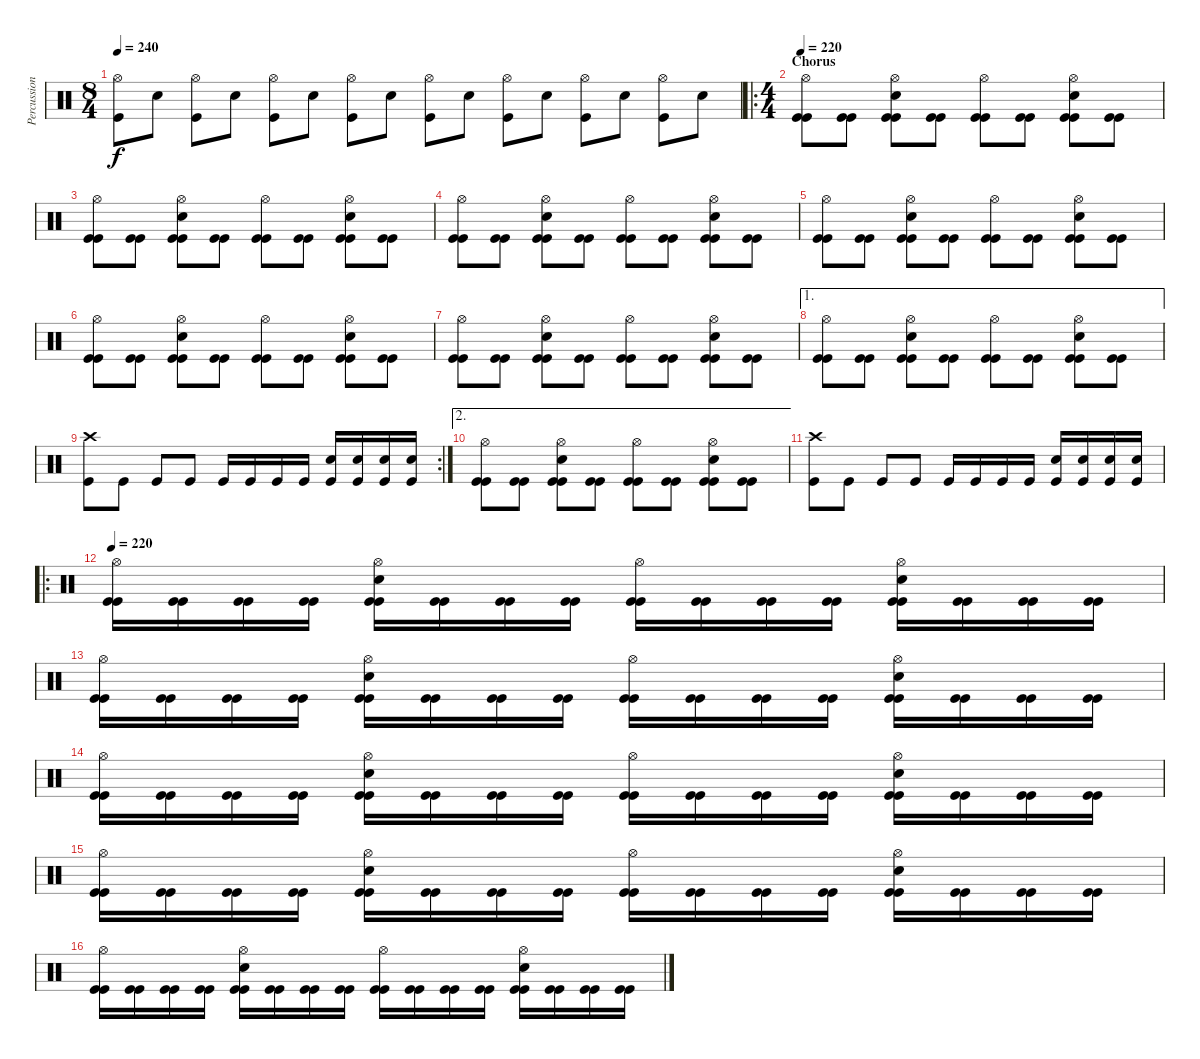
\track ("Percussion" "Percussion") {instrument percussion}
\staff {score}
\articulation defaults
\ts (8 4)
\tempo 240
\clef neutral
\ks c
("Hi-Hat (open)" "Kick (hit)").8{dy f} "Snare (hit) 2".8 ("Hi-Hat (open)" "Kick (hit)").8 "Snare (hit) 2".8 ("Hi-Hat (open)" "Kick (hit)").8 "Snare (hit) 2".8 ("Hi-Hat (open)" "Kick (hit)").8 "Snare (hit) 2".8 ("Hi-Hat (open)" "Kick (hit)").8 "Snare (hit) 2".8 ("Hi-Hat (open)" "Kick (hit)").8 "Snare (hit) 2".8 ("Hi-Hat (open)" "Kick (hit)").8 "Snare (hit) 2".8 ("Hi-Hat (open)" "Kick (hit)").8 "Snare (hit) 2".8 |
\ro
\ts (4 4)
\section ("" "Chorus")
\tempo 220
("Hi-Hat (open)" "Kick (hit)" "Kick (hit)").8 ("Kick (hit)" "Kick (hit)").8 ("Hi-Hat (open)" "Snare (hit) 2" "Kick (hit)" "Kick (hit)").8 ("Kick (hit)" "Kick (hit)").8 ("Hi-Hat (open)" "Kick (hit)" "Kick (hit)").8 ("Kick (hit)" "Kick (hit)").8 ("Hi-Hat (open)" "Snare (hit) 2" "Kick (hit)" "Kick (hit)").8 ("Kick (hit)" "Kick (hit)").8 |
("Hi-Hat (open)" "Kick (hit)" "Kick (hit)").8 ("Kick (hit)" "Kick (hit)").8 ("Hi-Hat (open)" "Snare (hit) 2" "Kick (hit)" "Kick (hit)").8 ("Kick (hit)" "Kick (hit)").8 ("Hi-Hat (open)" "Kick (hit)" "Kick (hit)").8 ("Kick (hit)" "Kick (hit)").8 ("Hi-Hat (open)" "Snare (hit) 2" "Kick (hit)" "Kick (hit)").8 ("Kick (hit)" "Kick (hit)").8 |
("Hi-Hat (open)" "Kick (hit)" "Kick (hit)").8 ("Kick (hit)" "Kick (hit)").8 ("Hi-Hat (open)" "Snare (hit) 2" "Kick (hit)" "Kick (hit)").8 ("Kick (hit)" "Kick (hit)").8 ("Hi-Hat (open)" "Kick (hit)" "Kick (hit)").8 ("Kick (hit)" "Kick (hit)").8 ("Hi-Hat (open)" "Snare (hit) 2" "Kick (hit)" "Kick (hit)").8 ("Kick (hit)" "Kick (hit)").8 |
("Hi-Hat (open)" "Kick (hit)" "Kick (hit)").8 ("Kick (hit)" "Kick (hit)").8 ("Hi-Hat (open)" "Snare (hit) 2" "Kick (hit)" "Kick (hit)").8 ("Kick (hit)" "Kick (hit)").8 ("Hi-Hat (open)" "Kick (hit)" "Kick (hit)").8 ("Kick (hit)" "Kick (hit)").8 ("Hi-Hat (open)" "Snare (hit) 2" "Kick (hit)" "Kick (hit)").8 ("Kick (hit)" "Kick (hit)").8 |
("Hi-Hat (open)" "Kick (hit)" "Kick (hit)").8 ("Kick (hit)" "Kick (hit)").8 ("Hi-Hat (open)" "Snare (hit) 2" "Kick (hit)" "Kick (hit)").8 ("Kick (hit)" "Kick (hit)").8 ("Hi-Hat (open)" "Kick (hit)" "Kick (hit)").8 ("Kick (hit)" "Kick (hit)").8 ("Hi-Hat (open)" "Snare (hit) 2" "Kick (hit)" "Kick (hit)").8 ("Kick (hit)" "Kick (hit)").8 |
("Hi-Hat (open)" "Kick (hit)" "Kick (hit)").8 ("Kick (hit)" "Kick (hit)").8 ("Hi-Hat (open)" "Snare (hit) 2" "Kick (hit)" "Kick (hit)").8 ("Kick (hit)" "Kick (hit)").8 ("Hi-Hat (open)" "Kick (hit)" "Kick (hit)").8 ("Kick (hit)" "Kick (hit)").8 ("Hi-Hat (open)" "Snare (hit) 2" "Kick (hit)" "Kick (hit)").8 ("Kick (hit)" "Kick (hit)").8 |
\ae 1
("Hi-Hat (open)" "Kick (hit)" "Kick (hit)").8 ("Kick (hit)" "Kick (hit)").8 ("Hi-Hat (open)" "Snare (hit) 2" "Kick (hit)" "Kick (hit)").8 ("Kick (hit)" "Kick (hit)").8 ("Hi-Hat (open)" "Kick (hit)" "Kick (hit)").8 ("Kick (hit)" "Kick (hit)").8 ("Hi-Hat (open)" "Snare (hit) 2" "Kick (hit)" "Kick (hit)").8 ("Kick (hit)" "Kick (hit)").8 |
\rc 2
("Crash high (hit)" "Kick (hit)").8 "Kick (hit)".8 "Kick (hit)".8 "Kick (hit)".8 "Kick (hit)".16 "Kick (hit)".16 "Kick (hit)".16 "Kick (hit)".16 ("Snare (hit) 2" "Kick (hit)").16 ("Snare (hit) 2" "Kick (hit)").16 ("Snare (hit) 2" "Kick (hit)").16 ("Snare (hit) 2" "Kick (hit)").16 |
\ae 2
("Hi-Hat (open)" "Kick (hit)" "Kick (hit)").8 ("Kick (hit)" "Kick (hit)").8 ("Hi-Hat (open)" "Snare (hit) 2" "Kick (hit)" "Kick (hit)").8 ("Kick (hit)" "Kick (hit)").8 ("Hi-Hat (open)" "Kick (hit)" "Kick (hit)").8 ("Kick (hit)" "Kick (hit)").8 ("Hi-Hat (open)" "Snare (hit) 2" "Kick (hit)" "Kick (hit)").8 ("Kick (hit)" "Kick (hit)").8 |
("Crash high (hit)" "Kick (hit)").8 "Kick (hit)".8 "Kick (hit)".8 "Kick (hit)".8 "Kick (hit)".16 "Kick (hit)".16 "Kick (hit)".16 "Kick (hit)".16 ("Snare (hit) 2" "Kick (hit)").16 ("Snare (hit) 2" "Kick (hit)").16 ("Snare (hit) 2" "Kick (hit)").16 ("Snare (hit) 2" "Kick (hit)").16 |
\ro
\tempo 220
("Hi-Hat (open)" "Kick (hit)" "Kick (hit)").16 ("Kick (hit)" "Kick (hit)").16 ("Kick (hit)" "Kick (hit)").16 ("Kick (hit)" "Kick (hit)").16 ("Hi-Hat (open)" "Snare (hit) 2" "Kick (hit)" "Kick (hit)").16 ("Kick (hit)" "Kick (hit)").16 ("Kick (hit)" "Kick (hit)").16 ("Kick (hit)" "Kick (hit)").16 ("Hi-Hat (open)" "Kick (hit)" "Kick (hit)").16 ("Kick (hit)" "Kick (hit)").16 ("Kick (hit)" "Kick (hit)").16 ("Kick (hit)" "Kick (hit)").16 ("Hi-Hat (open)" "Snare (hit) 2" "Kick (hit)" "Kick (hit)").16 ("Kick (hit)" "Kick (hit)").16 ("Kick (hit)" "Kick (hit)").16 ("Kick (hit)" "Kick (hit)").16 |
("Hi-Hat (open)" "Kick (hit)" "Kick (hit)").16 ("Kick (hit)" "Kick (hit)").16 ("Kick (hit)" "Kick (hit)").16 ("Kick (hit)" "Kick (hit)").16 ("Hi-Hat (open)" "Snare (hit) 2" "Kick (hit)" "Kick (hit)").16 ("Kick (hit)" "Kick (hit)").16 ("Kick (hit)" "Kick (hit)").16 ("Kick (hit)" "Kick (hit)").16 ("Hi-Hat (open)" "Kick (hit)" "Kick (hit)").16 ("Kick (hit)" "Kick (hit)").16 ("Kick (hit)" "Kick (hit)").16 ("Kick (hit)" "Kick (hit)").16 ("Hi-Hat (open)" "Snare (hit) 2" "Kick (hit)" "Kick (hit)").16 ("Kick (hit)" "Kick (hit)").16 ("Kick (hit)" "Kick (hit)").16 ("Kick (hit)" "Kick (hit)").16 |
("Hi-Hat (open)" "Kick (hit)" "Kick (hit)").16 ("Kick (hit)" "Kick (hit)").16 ("Kick (hit)" "Kick (hit)").16 ("Kick (hit)" "Kick (hit)").16 ("Hi-Hat (open)" "Snare (hit) 2" "Kick (hit)" "Kick (hit)").16 ("Kick (hit)" "Kick (hit)").16 ("Kick (hit)" "Kick (hit)").16 ("Kick (hit)" "Kick (hit)").16 ("Hi-Hat (open)" "Kick (hit)" "Kick (hit)").16 ("Kick (hit)" "Kick (hit)").16 ("Kick (hit)" "Kick (hit)").16 ("Kick (hit)" "Kick (hit)").16 ("Hi-Hat (open)" "Snare (hit) 2" "Kick (hit)" "Kick (hit)").16 ("Kick (hit)" "Kick (hit)").16 ("Kick (hit)" "Kick (hit)").16 ("Kick (hit)" "Kick (hit)").16 |
("Hi-Hat (open)" "Kick (hit)" "Kick (hit)").16 ("Kick (hit)" "Kick (hit)").16 ("Kick (hit)" "Kick (hit)").16 ("Kick (hit)" "Kick (hit)").16 ("Hi-Hat (open)" "Snare (hit) 2" "Kick (hit)" "Kick (hit)").16 ("Kick (hit)" "Kick (hit)").16 ("Kick (hit)" "Kick (hit)").16 ("Kick (hit)" "Kick (hit)").16 ("Hi-Hat (open)" "Kick (hit)" "Kick (hit)").16 ("Kick (hit)" "Kick (hit)").16 ("Kick (hit)" "Kick (hit)").16 ("Kick (hit)" "Kick (hit)").16 ("Hi-Hat (open)" "Snare (hit) 2" "Kick (hit)" "Kick (hit)").16 ("Kick (hit)" "Kick (hit)").16 ("Kick (hit)" "Kick (hit)").16 ("Kick (hit)" "Kick (hit)").16 |
("Hi-Hat (open)" "Kick (hit)" "Kick (hit)").16 ("Kick (hit)" "Kick (hit)").16 ("Kick (hit)" "Kick (hit)").16 ("Kick (hit)" "Kick (hit)").16 ("Hi-Hat (open)" "Snare (hit) 2" "Kick (hit)" "Kick (hit)").16 ("Kick (hit)" "Kick (hit)").16 ("Kick (hit)" "Kick (hit)").16 ("Kick (hit)" "Kick (hit)").16 ("Hi-Hat (open)" "Kick (hit)" "Kick (hit)").16 ("Kick (hit)" "Kick (hit)").16 ("Kick (hit)" "Kick (hit)").16 ("Kick (hit)" "Kick (hit)").16 ("Hi-Hat (open)" "Snare (hit) 2" "Kick (hit)" "Kick (hit)").16 ("Kick (hit)" "Kick (hit)").16 ("Kick (hit)" "Kick (hit)").16 ("Kick (hit)" "Kick (hit)").16
